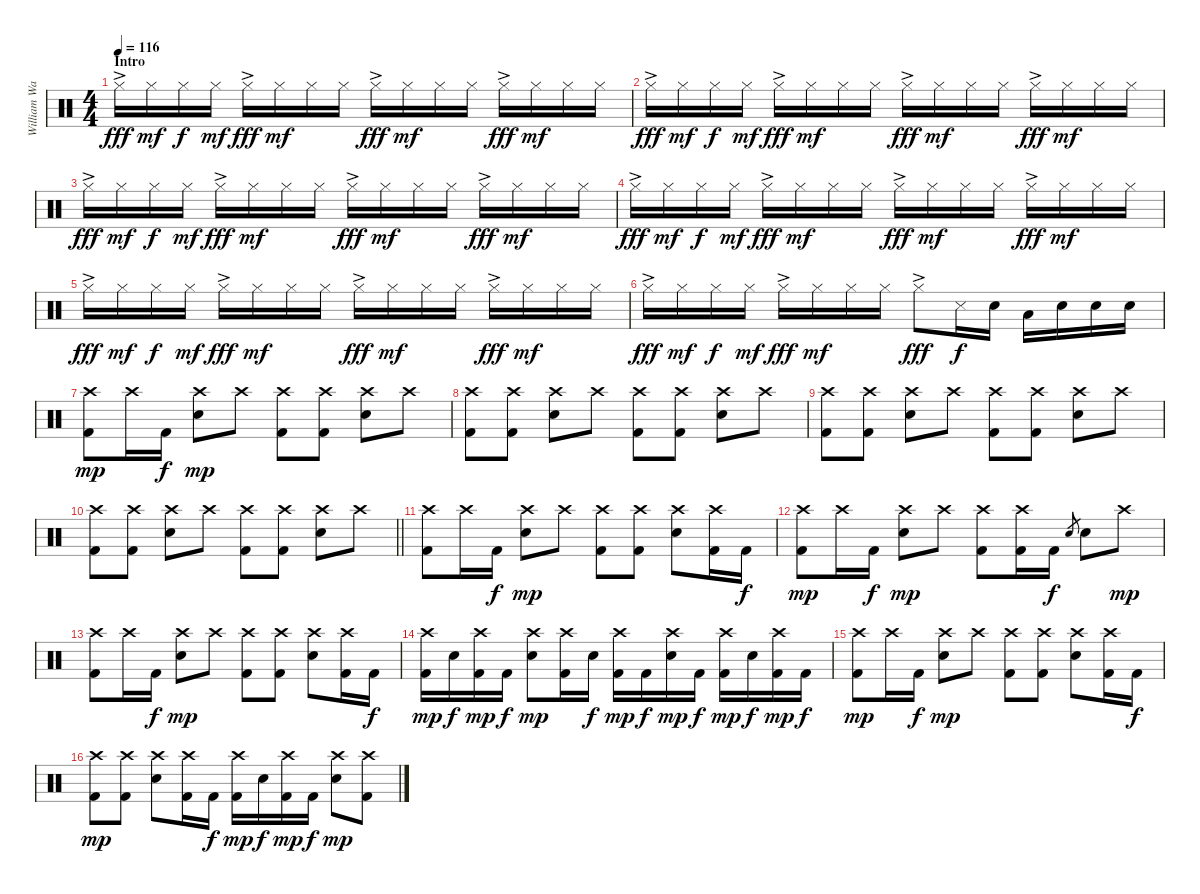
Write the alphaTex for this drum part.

\track ("William Ward" "William Wa") {instrument percussion}
\staff {score}
\articulation defaults
\ts (4 4)
\section ("" "Intro")
\tempo 116
\clef neutral
\ks c "Hi-Hat (closed)"{ac}.16{dy fff} "Hi-Hat (closed)".16{dy mf} "Hi-Hat (closed)".16{dy f} "Hi-Hat (closed)".16{dy mf} "Hi-Hat (closed)"{ac}.16{dy fff} "Hi-Hat (closed)".16{dy mf} "Hi-Hat (closed)".16 "Hi-Hat (closed)".16 "Hi-Hat (closed)"{ac}.16{dy fff} "Hi-Hat (closed)".16{dy mf} "Hi-Hat (closed)".16 "Hi-Hat (closed)".16 "Hi-Hat (closed)"{ac}.16{dy fff} "Hi-Hat (closed)".16{dy mf} "Hi-Hat (closed)".16 "Hi-Hat (closed)".16
|
"Hi-Hat (closed)"{ac}.16{dy fff} "Hi-Hat (closed)".16{dy mf} "Hi-Hat (closed)".16{dy f} "Hi-Hat (closed)".16{dy mf} "Hi-Hat (closed)"{ac}.16{dy fff} "Hi-Hat (closed)".16{dy mf} "Hi-Hat (closed)".16 "Hi-Hat (closed)".16 "Hi-Hat (closed)"{ac}.16{dy fff} "Hi-Hat (closed)".16{dy mf} "Hi-Hat (closed)".16 "Hi-Hat (closed)".16 "Hi-Hat (closed)"{ac}.16{dy fff} "Hi-Hat (closed)".16{dy mf} "Hi-Hat (closed)".16 "Hi-Hat (closed)".16 |
"Hi-Hat (closed)"{ac}.16{dy fff} "Hi-Hat (closed)".16{dy mf} "Hi-Hat (closed)".16{dy f} "Hi-Hat (closed)".16{dy mf} "Hi-Hat (closed)"{ac}.16{dy fff} "Hi-Hat (closed)".16{dy mf} "Hi-Hat (closed)".16 "Hi-Hat (closed)".16 "Hi-Hat (closed)"{ac}.16{dy fff} "Hi-Hat (closed)".16{dy mf} "Hi-Hat (closed)".16 "Hi-Hat (closed)".16 "Hi-Hat (closed)"{ac}.16{dy fff} "Hi-Hat (closed)".16{dy mf} "Hi-Hat (closed)".16 "Hi-Hat (closed)".16 |
"Hi-Hat (closed)"{ac}.16{dy fff} "Hi-Hat (closed)".16{dy mf} "Hi-Hat (closed)".16{dy f} "Hi-Hat (closed)".16{dy mf} "Hi-Hat (closed)"{ac}.16{dy fff} "Hi-Hat (closed)".16{dy mf} "Hi-Hat (closed)".16 "Hi-Hat (closed)".16 "Hi-Hat (closed)"{ac}.16{dy fff} "Hi-Hat (closed)".16{dy mf} "Hi-Hat (closed)".16 "Hi-Hat (closed)".16 "Hi-Hat (closed)"{ac}.16{dy fff} "Hi-Hat (closed)".16{dy mf} "Hi-Hat (closed)".16 "Hi-Hat (closed)".16 |
"Hi-Hat (closed)"{ac}.16{dy fff} "Hi-Hat (closed)".16{dy mf} "Hi-Hat (closed)".16{dy f} "Hi-Hat (closed)".16{dy mf} "Hi-Hat (closed)"{ac}.16{dy fff} "Hi-Hat (closed)".16{dy mf} "Hi-Hat (closed)".16 "Hi-Hat (closed)".16 "Hi-Hat (closed)"{ac}.16{dy fff} "Hi-Hat (closed)".16{dy mf} "Hi-Hat (closed)".16 "Hi-Hat (closed)".16 "Hi-Hat (closed)"{ac}.16{dy fff} "Hi-Hat (closed)".16{dy mf} "Hi-Hat (closed)".16 "Hi-Hat (closed)".16 |
"Hi-Hat (closed)"{ac}.16{dy fff} "Hi-Hat (closed)".16{dy mf} "Hi-Hat (closed)".16{dy f} "Hi-Hat (closed)".16{dy mf} "Hi-Hat (closed)"{ac}.16{dy fff} "Hi-Hat (closed)".16{dy mf} "Hi-Hat (closed)".16 "Hi-Hat (closed)".16 "Hi-Hat (closed)"{ac}.8{dy fff} "Snare (side stick) 3".16{dy f} "Snare (hit) 2".16 "Low Tom (hit)".16 "Snare (hit) 2".16 "Snare (hit) 2".16 "Snare (hit) 2".16 |
("Crash high (hit)" "Kick (hit) 2").8{dy mp} "Crash high (hit)".16 "Kick (hit) 2".16{dy f} ("Crash high (hit)" "Snare (hit) 2").8{dy mp} "Crash high (hit)".8 ("Crash high (hit)" "Kick (hit) 2").8 ("Crash high (hit)" "Kick (hit) 2").8 ("Crash high (hit)" "Snare (hit) 2").8 "Crash high (hit)".8 |
("Crash high (hit)" "Kick (hit) 2").8 ("Crash high (hit)" "Kick (hit) 2").8 ("Crash high (hit)" "Snare (hit) 2").8 "Crash high (hit)".8 ("Crash high (hit)" "Kick (hit) 2").8 ("Crash high (hit)" "Kick (hit) 2").8 ("Crash high (hit)" "Snare (hit) 2").8 "Crash high (hit)".8 |
("Crash high (hit)" "Kick (hit) 2").8 ("Crash high (hit)" "Kick (hit) 2").8 ("Crash high (hit)" "Snare (hit) 2").8 "Crash high (hit)".8 ("Crash high (hit)" "Kick (hit) 2").8 ("Crash high (hit)" "Kick (hit) 2").8 ("Crash high (hit)" "Snare (hit) 2").8 "Crash high (hit)".8 |
\barLineRight lightlight
("Crash high (hit)" "Kick (hit) 2").8 ("Crash high (hit)" "Kick (hit) 2").8 ("Crash high (hit)" "Snare (hit) 2").8 "Crash high (hit)".8 ("Crash high (hit)" "Kick (hit) 2").8 ("Crash high (hit)" "Kick (hit) 2").8 ("Crash high (hit)" "Snare (hit) 2").8 "Crash high (hit)".8 |
("Crash high (hit)" "Kick (hit) 2").8 "Crash high (hit)".16 "Kick (hit) 2".16{dy f} ("Crash high (hit)" "Snare (hit) 2").8{dy mp} "Crash high (hit)".8 ("Crash high (hit)" "Kick (hit) 2").8 ("Crash high (hit)" "Kick (hit) 2").8 ("Crash high (hit)" "Snare (hit) 2").8 ("Crash high (hit)" "Kick (hit) 2").16 "Kick (hit) 2".16{dy f} |
("Crash high (hit)" "Kick (hit) 2").8{dy mp} "Crash high (hit)".16 "Kick (hit) 2".16{dy f} ("Crash high (hit)" "Snare (hit) 2").8{dy mp} "Crash high (hit)".8 ("Crash high (hit)" "Kick (hit) 2").8 ("Crash high (hit)" "Kick (hit) 2").16 "Kick (hit) 2".16{dy f} "Snare (hit) 2".8{gr} "Snare (hit) 2".8 "Crash high (hit)".8{dy mp} |
("Crash high (hit)" "Kick (hit) 2").8 "Crash high (hit)".16 "Kick (hit) 2".16{dy f} ("Crash high (hit)" "Snare (hit) 2").8{dy mp} "Crash high (hit)".8 ("Crash high (hit)" "Kick (hit) 2").8 ("Crash high (hit)" "Kick (hit) 2").8 ("Crash high (hit)" "Snare (hit) 2").8 ("Crash high (hit)" "Kick (hit) 2").16 "Kick (hit) 2".16{dy f} |
("Crash high (hit)" "Kick (hit) 2").16{dy mp} "Snare (hit) 2".16{dy f} ("Crash high (hit)" "Kick (hit) 2").16{dy mp} "Kick (hit) 2".16{dy f} ("Crash high (hit)" "Snare (hit) 2").8{dy mp} ("Crash high (hit)" "Kick (hit) 2").16 "Snare (hit) 2".16{dy f} ("Crash high (hit)" "Kick (hit) 2").16{dy mp} "Kick (hit) 2".16{dy f} ("Crash high (hit)" "Snare (hit) 2").16{dy mp} "Kick (hit) 2".16{dy f} ("Crash high (hit)" "Kick (hit) 2").16{dy mp} "Snare (hit) 2".16{dy f} ("Crash high (hit)" "Kick (hit) 2").16{dy mp} "Kick (hit) 2".16{dy f} |
("Crash high (hit)" "Kick (hit) 2").8{dy mp} "Crash high (hit)".16 "Kick (hit) 2".16{dy f} ("Crash high (hit)" "Snare (hit) 2").8{dy mp} "Crash high (hit)".8 ("Crash high (hit)" "Kick (hit) 2").8 ("Crash high (hit)" "Kick (hit) 2").8 ("Crash high (hit)" "Snare (hit) 2").8 ("Crash high (hit)" "Kick (hit) 2").16 "Kick (hit) 2".16{dy f} |
("Crash high (hit)" "Kick (hit) 2").8{dy mp} ("Crash high (hit)" "Kick (hit) 2").8 ("Crash high (hit)" "Snare (hit) 2").8 ("Crash high (hit)" "Kick (hit) 2").16 "Kick (hit) 2".16{dy f} ("Crash high (hit)" "Kick (hit) 2").16{dy mp} "Snare (hit) 2".16{dy f} ("Crash high (hit)" "Kick (hit) 2").16{dy mp} "Kick (hit) 2".16{dy f} ("Crash high (hit)" "Snare (hit) 2").8{dy mp} ("Crash high (hit)" "Kick (hit) 2").8
